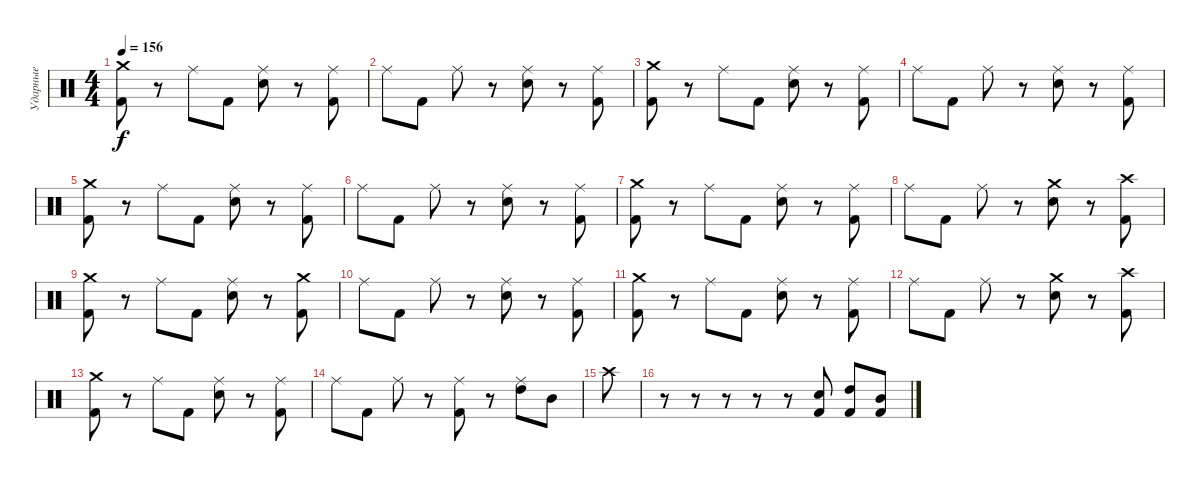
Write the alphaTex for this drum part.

\track ("Ударные" "Ударные") {instrument percussion}
\staff {score}
\articulation defaults
\ts (4 4)
\tempo 156
\clef neutral
\ks c
("Crash medium (hit)" "Kick (hit) 2").8{dy f} r.8 "Ride (middle)".8 "Kick (hit) 2".8 ("Ride (middle)" "Electric Snare (hit)").8 r.8 ("Ride (middle)" "Kick (hit) 2").8 |
"Ride (middle)".8 "Kick (hit) 2".8 "Ride (middle)".8 r.8 ("Ride (middle)" "Electric Snare (hit)").8 r.8 ("Ride (middle)" "Kick (hit) 2").8 |
("Crash medium (hit)" "Kick (hit) 2").8 r.8 "Ride (middle)".8 "Kick (hit) 2".8 ("Ride (middle)" "Electric Snare (hit)").8 r.8 ("Ride (middle)" "Kick (hit) 2").8 |
"Ride (middle)".8 "Kick (hit) 2".8 "Ride (middle)".8 r.8 ("Ride (middle)" "Electric Snare (hit)").8 r.8 ("Ride (middle)" "Kick (hit) 2").8 |
("Crash medium (hit)" "Kick (hit) 2").8 r.8 "Ride (middle)".8 "Kick (hit) 2".8 ("Ride (middle)" "Electric Snare (hit)").8 r.8 ("Ride (middle)" "Kick (hit) 2").8 |
"Ride (middle)".8 "Kick (hit) 2".8 "Ride (middle)".8 r.8 ("Ride (middle)" "Electric Snare (hit)").8 r.8 ("Ride (middle)" "Kick (hit) 2").8 |
("Crash medium (hit)" "Kick (hit) 2").8 r.8 "Ride (middle)".8 "Kick (hit) 2".8 ("Ride (middle)" "Electric Snare (hit)").8 r.8 ("Ride (middle)" "Kick (hit) 2").8 |
"Ride (middle)".8 "Kick (hit) 2".8 "Ride (middle)".8 r.8 ("Crash medium (hit)" "Electric Snare (hit)").8 r.8 ("Crash high (hit)" "Kick (hit) 2").8 |
("Crash medium (hit)" "Kick (hit) 2").8 r.8 "Ride (middle)".8 "Kick (hit) 2".8 ("Ride (middle)" "Electric Snare (hit)").8 r.8 ("Crash medium (hit)" "Kick (hit) 2").8 |
"Ride (middle)".8 "Kick (hit) 2".8 "Ride (middle)".8 r.8 ("Ride (middle)" "Electric Snare (hit)").8 r.8 ("Ride (middle)" "Kick (hit) 2").8 |
("Crash medium (hit)" "Kick (hit) 2").8 r.8 "Ride (middle)".8 "Kick (hit) 2".8 ("Ride (middle)" "Electric Snare (hit)").8 r.8 ("Ride (middle)" "Kick (hit) 2").8 |
"Ride (middle)".8 "Kick (hit) 2".8 "Ride (middle)".8 r.8 ("Crash medium (hit)" "Electric Snare (hit)").8 r.8 ("Crash high (hit)" "Kick (hit) 2").8 |
("Crash medium (hit)" "Kick (hit) 2").8 r.8 "Ride (middle)".8 "Kick (hit) 2".8 ("Ride (middle)" "Electric Snare (hit)").8 r.8 ("Ride (middle)" "Kick (hit) 2").8 |
"Ride (middle)".8 "Kick (hit) 2".8 "Ride (middle)".8 r.8 ("Ride (middle)" "Kick (hit) 2").8 r.8 ("Ride (middle)" "High Tom (hit)").8 "Mid Tom (hit)".8 |
"Crash high (hit)".8 |
r.8 r.8 r.8 r.8 r.8 ("Electric Snare (hit)" "Kick (hit) 2").8 ("High Tom (hit)" "Kick (hit) 2").8 ("Mid Tom (hit)" "Kick (hit) 2").8
